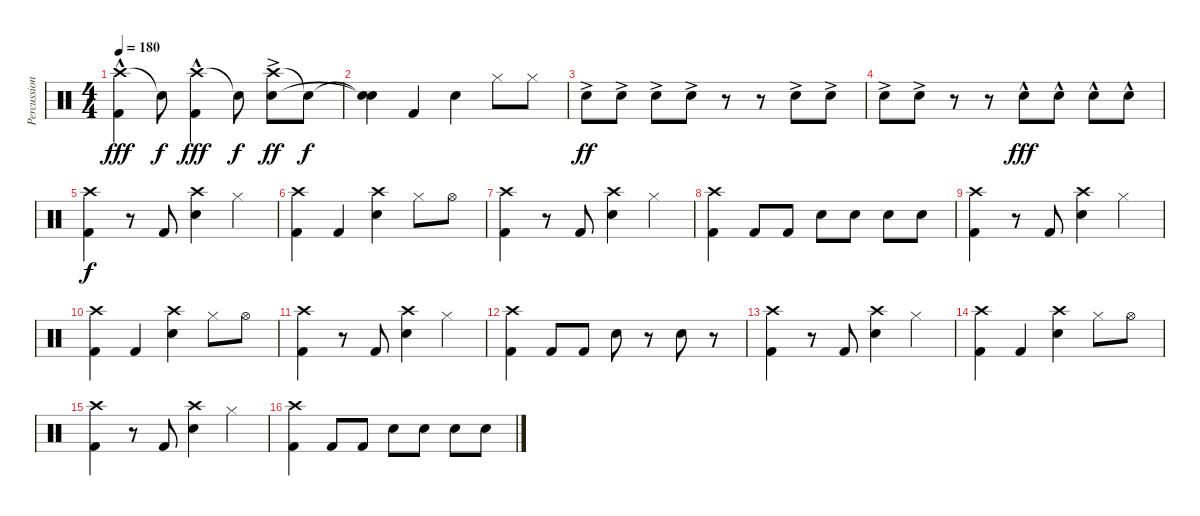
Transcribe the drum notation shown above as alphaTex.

\track ("Percussion" "Percussion") {instrument percussion}
\staff {score}
\articulation defaults
\ts (4 4)
\tempo 180
\clef neutral
\ks c
("Crash high (hit)" "Kick (hit) 2"{hac}).4{dy fff} "Snare (hit)"{t}.8{dy f} ("Crash high (hit)" "Kick (hit) 2"{hac}).4{dy fff} "Snare (hit)"{t}.8{dy f} ("Crash high (hit)" "Electric Snare (hit)"{ac}).8{dy ff} "Snare (hit)"{t}.8{dy f} |
("Snare (hit)"{t} "Snare (hit)"{t}).4 "Kick (hit) 2".4 "Electric Snare (hit)".4 "Hi-Hat (closed)".8 "Hi-Hat (closed)".8 |
"Electric Snare (hit)"{ac}.8{dy ff} "Electric Snare (hit)"{ac}.8 "Electric Snare (hit)"{ac}.8 "Electric Snare (hit)"{ac}.8 r.8 r.8 "Electric Snare (hit)"{ac}.8 "Electric Snare (hit)"{ac}.8 |
"Electric Snare (hit)"{ac}.8 "Electric Snare (hit)"{ac}.8 r.8 r.8 "Electric Snare (hit)"{hac}.8{dy fff} "Electric Snare (hit)"{hac}.8 "Electric Snare (hit)"{hac}.8 "Electric Snare (hit)"{hac}.8 |
("Crash high (hit)" "Kick (hit) 2").4{dy f} r.8 "Kick (hit) 2".8 ("Crash high (hit)" "Electric Snare (hit)").4 "Hi-Hat (closed)".4 |
("Crash high (hit)" "Kick (hit) 2").4 "Kick (hit) 2".4 ("Crash high (hit)" "Electric Snare (hit)").4 "Hi-Hat (closed)".8 "Hi-Hat (open)".8 |
("Crash high (hit)" "Kick (hit) 2").4 r.8 "Kick (hit) 2".8 ("Crash high (hit)" "Electric Snare (hit)").4 "Hi-Hat (closed)".4 |
("Crash high (hit)" "Kick (hit) 2").4 "Kick (hit) 2".8 "Kick (hit) 2".8 "Electric Snare (hit)".8 "Electric Snare (hit)".8 "Electric Snare (hit)".8 "Electric Snare (hit)".8 |
("Crash high (hit)" "Kick (hit) 2").4 r.8 "Kick (hit) 2".8 ("Crash high (hit)" "Electric Snare (hit)").4 "Hi-Hat (closed)".4 |
("Crash high (hit)" "Kick (hit) 2").4 "Kick (hit) 2".4 ("Crash high (hit)" "Electric Snare (hit)").4 "Hi-Hat (closed)".8 "Hi-Hat (open)".8 |
("Crash high (hit)" "Kick (hit) 2").4 r.8 "Kick (hit) 2".8 ("Crash high (hit)" "Electric Snare (hit)").4 "Hi-Hat (closed)".4 |
("Crash high (hit)" "Kick (hit) 2").4 "Kick (hit) 2".8 "Kick (hit) 2".8 "Electric Snare (hit)".8 r.8 "Electric Snare (hit)".8 r.8 |
("Crash high (hit)" "Kick (hit) 2").4 r.8 "Kick (hit) 2".8 ("Crash high (hit)" "Electric Snare (hit)").4 "Hi-Hat (closed)".4 |
("Crash high (hit)" "Kick (hit) 2").4 "Kick (hit) 2".4 ("Crash high (hit)" "Electric Snare (hit)").4 "Hi-Hat (closed)".8 "Hi-Hat (open)".8 |
("Crash high (hit)" "Kick (hit) 2").4 r.8 "Kick (hit) 2".8 ("Crash high (hit)" "Electric Snare (hit)").4 "Hi-Hat (closed)".4 |
("Crash high (hit)" "Kick (hit) 2").4 "Kick (hit) 2".8 "Kick (hit) 2".8 "Electric Snare (hit)".8 "Electric Snare (hit)".8 "Electric Snare (hit)".8 "Electric Snare (hit)".8
